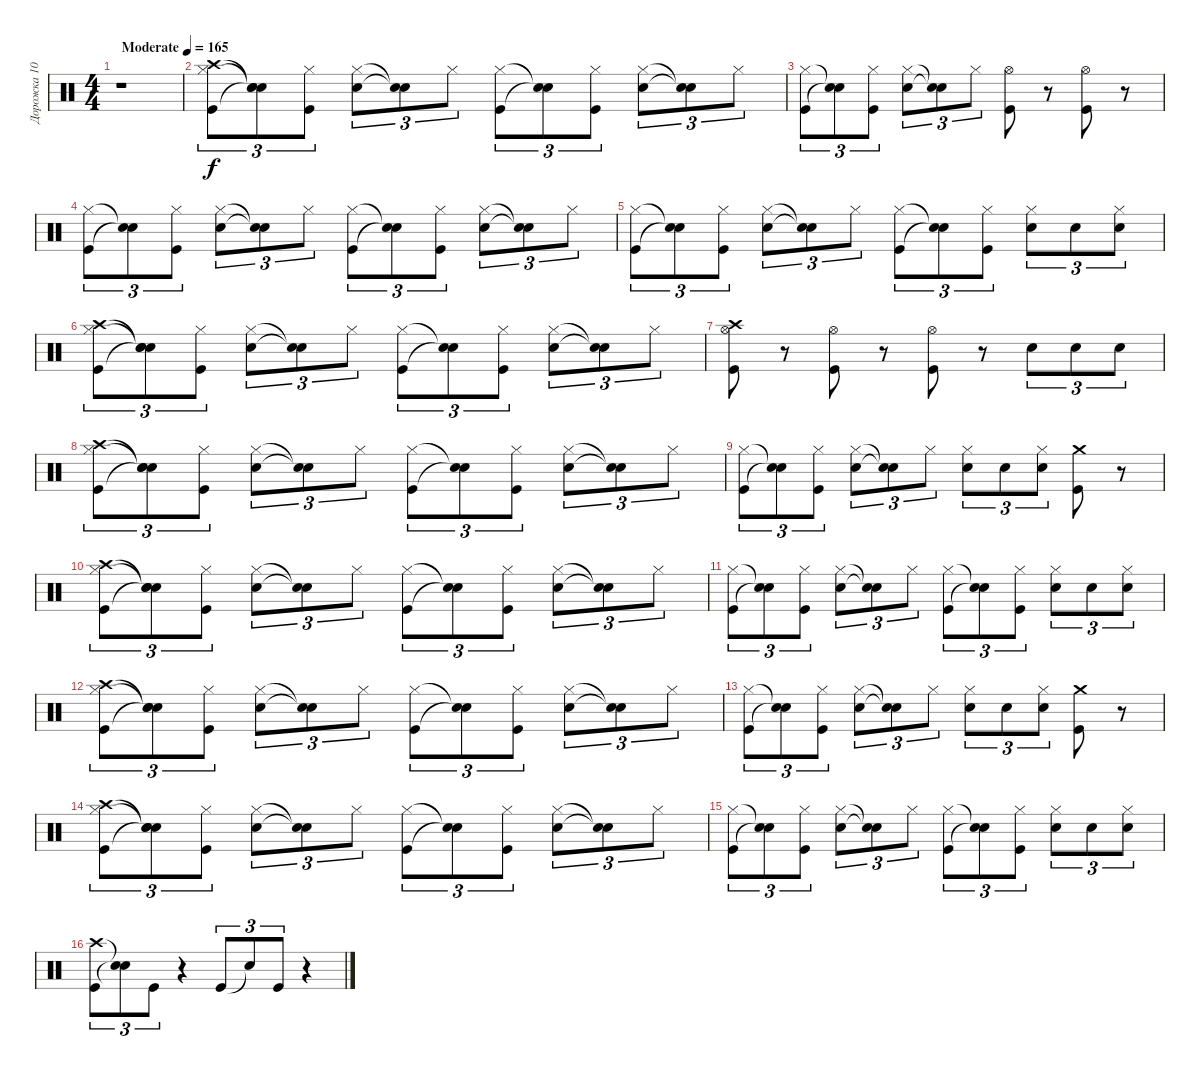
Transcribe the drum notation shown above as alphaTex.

\track ("Дорожка 10" "Дорожка 10") {instrument percussion}
\staff {score}
\articulation defaults
\ts (4 4)
\tempo (165 "Moderate")
\clef neutral
\ks c
r.1{dy f} |
("Crash high (hit)" "Hi-Hat (closed)" "Kick (hit)").8{tu (3 2)} ("Snare (hit)"{t} "Snare (hit)"{t} "Snare (hit)"{t}).8{tu (3 2)} ("Hi-Hat (closed)" "Kick (hit)").8{tu (3 2)} ("Electric Snare (hit)" "Hi-Hat (closed)").8{tu (3 2)} ("Snare (hit)"{t} "Snare (hit)"{t}).8{tu (3 2)} "Hi-Hat (closed)".8{tu (3 2)} ("Hi-Hat (closed)" "Kick (hit)").8{tu (3 2)} ("Snare (hit)"{t} "Snare (hit)"{t}).8{tu (3 2)} ("Hi-Hat (closed)" "Kick (hit)").8{tu (3 2)} ("Hi-Hat (closed)" "Electric Snare (hit)").8{tu (3 2)} ("Snare (hit)"{t} "Snare (hit)"{t}).8{tu (3 2)} "Hi-Hat (closed)".8{tu (3 2)} |
("Kick (hit)" "Hi-Hat (closed)").8{tu (3 2)} ("Snare (hit)"{t} "Snare (hit)"{t}).8{tu (3 2)} ("Kick (hit)" "Hi-Hat (closed)").8{tu (3 2)} ("Hi-Hat (closed)" "Electric Snare (hit)").8{tu (3 2)} ("Snare (hit)"{t} "Snare (hit)"{t}).8{tu (3 2)} "Hi-Hat (closed)".8{tu (3 2)} ("Kick (hit)" "Hi-Hat (open)").8 r.8 ("Kick (hit)" "Hi-Hat (open)").8 r.8 |
("Hi-Hat (closed)" "Kick (hit)").8{tu (3 2)} ("Snare (hit)"{t} "Snare (hit)"{t}).8{tu (3 2)} ("Hi-Hat (closed)" "Kick (hit)").8{tu (3 2)} ("Hi-Hat (closed)" "Electric Snare (hit)").8{tu (3 2)} ("Snare (hit)"{t} "Snare (hit)"{t}).8{tu (3 2)} "Hi-Hat (closed)".8{tu (3 2)} ("Kick (hit)" "Hi-Hat (closed)").8{tu (3 2)} ("Snare (hit)"{t} "Snare (hit)"{t}).8{tu (3 2)} ("Kick (hit)" "Hi-Hat (closed)").8{tu (3 2)} ("Hi-Hat (closed)" "Electric Snare (hit)").8{tu (3 2)} ("Snare (hit)"{t} "Snare (hit)"{t}).8{tu (3 2)} "Hi-Hat (closed)".8{tu (3 2)} |
("Kick (hit)" "Hi-Hat (closed)").8{tu (3 2)} ("Snare (hit)"{t} "Snare (hit)"{t}).8{tu (3 2)} ("Hi-Hat (closed)" "Kick (hit)").8{tu (3 2)} ("Electric Snare (hit)" "Hi-Hat (closed)").8{tu (3 2)} ("Snare (hit)"{t} "Snare (hit)"{t}).8{tu (3 2)} "Hi-Hat (closed)".8{tu (3 2)} ("Kick (hit)" "Hi-Hat (closed)").8{tu (3 2)} ("Snare (hit)"{t} "Snare (hit)"{t}).8{tu (3 2)} ("Hi-Hat (closed)" "Kick (hit)").8{tu (3 2)} ("Electric Snare (hit)" "Hi-Hat (closed)").8{tu (3 2)} "Electric Snare (hit)".8{tu (3 2)} ("Hi-Hat (closed)" "Electric Snare (hit)").8{tu (3 2)} |
("Crash high (hit)" "Kick (hit)" "Hi-Hat (closed)").8{tu (3 2)} ("Snare (hit)"{t} "Snare (hit)"{t} "Snare (hit)"{t}).8{tu (3 2)} ("Kick (hit)" "Hi-Hat (closed)").8{tu (3 2)} ("Electric Snare (hit)" "Hi-Hat (closed)").8{tu (3 2)} ("Snare (hit)"{t} "Snare (hit)"{t}).8{tu (3 2)} "Hi-Hat (closed)".8{tu (3 2)} ("Kick (hit)" "Hi-Hat (closed)").8{tu (3 2)} ("Snare (hit)"{t} "Snare (hit)"{t}).8{tu (3 2)} ("Hi-Hat (closed)" "Kick (hit)").8{tu (3 2)} ("Electric Snare (hit)" "Hi-Hat (closed)").8{tu (3 2)} ("Snare (hit)"{t} "Snare (hit)"{t}).8{tu (3 2)} "Hi-Hat (closed)".8{tu (3 2)} |
("Kick (hit)" "Crash high (hit)" "Hi-Hat (open)").8 r.8 ("Hi-Hat (open)" "Kick (hit)").8 r.8 ("Kick (hit)" "Hi-Hat (open)").8 r.8 "Electric Snare (hit)".8{tu (3 2)} "Electric Snare (hit)".8{tu (3 2)} "Electric Snare (hit)".8{tu (3 2)} |
("Hi-Hat (closed)" "Crash high (hit)" "Kick (hit)").8{tu (3 2)} ("Snare (hit)"{t} "Snare (hit)"{t} "Snare (hit)"{t}).8{tu (3 2)} ("Kick (hit)" "Hi-Hat (closed)").8{tu (3 2)} ("Hi-Hat (closed)" "Electric Snare (hit)").8{tu (3 2)} ("Snare (hit)"{t} "Snare (hit)"{t}).8{tu (3 2)} "Hi-Hat (closed)".8{tu (3 2)} ("Kick (hit)" "Hi-Hat (closed)").8{tu (3 2)} ("Snare (hit)"{t} "Snare (hit)"{t}).8{tu (3 2)} ("Kick (hit)" "Hi-Hat (closed)").8{tu (3 2)} ("Electric Snare (hit)" "Hi-Hat (closed)").8{tu (3 2)} ("Snare (hit)"{t} "Snare (hit)"{t}).8{tu (3 2)} "Hi-Hat (closed)".8{tu (3 2)} |
("Hi-Hat (closed)" "Kick (hit)").8{tu (3 2)} ("Snare (hit)"{t} "Snare (hit)"{t}).8{tu (3 2)} ("Kick (hit)" "Hi-Hat (closed)").8{tu (3 2)} ("Electric Snare (hit)" "Hi-Hat (closed)").8{tu (3 2)} ("Snare (hit)"{t} "Snare (hit)"{t}).8{tu (3 2)} "Hi-Hat (closed)".8{tu (3 2)} ("Electric Snare (hit)" "Hi-Hat (closed)").8{tu (3 2)} "Electric Snare (hit)".8{tu (3 2)} ("Electric Snare (hit)" "Hi-Hat (closed)").8{tu (3 2)} ("Kick (hit)" "Crash medium (hit)").8 r.8 |
("Kick (hit)" "Crash high (hit)" "Hi-Hat (closed)").8{tu (3 2)} ("Snare (hit)"{t} "Snare (hit)"{t} "Snare (hit)"{t}).8{tu (3 2)} ("Hi-Hat (closed)" "Kick (hit)").8{tu (3 2)} ("Hi-Hat (closed)" "Electric Snare (hit)").8{tu (3 2)} ("Snare (hit)"{t} "Snare (hit)"{t}).8{tu (3 2)} "Hi-Hat (closed)".8{tu (3 2)} ("Hi-Hat (closed)" "Kick (hit)").8{tu (3 2)} ("Snare (hit)"{t} "Snare (hit)"{t}).8{tu (3 2)} ("Kick (hit)" "Hi-Hat (closed)").8{tu (3 2)} ("Electric Snare (hit)" "Hi-Hat (closed)").8{tu (3 2)} ("Snare (hit)"{t} "Snare (hit)"{t}).8{tu (3 2)} "Hi-Hat (closed)".8{tu (3 2)} |
("Hi-Hat (closed)" "Kick (hit)").8{tu (3 2)} ("Snare (hit)"{t} "Snare (hit)"{t}).8{tu (3 2)} ("Hi-Hat (closed)" "Kick (hit)").8{tu (3 2)} ("Electric Snare (hit)" "Hi-Hat (closed)").8{tu (3 2)} ("Snare (hit)"{t} "Snare (hit)"{t}).8{tu (3 2)} "Hi-Hat (closed)".8{tu (3 2)} ("Hi-Hat (closed)" "Kick (hit)").8{tu (3 2)} ("Snare (hit)"{t} "Snare (hit)"{t}).8{tu (3 2)} ("Kick (hit)" "Hi-Hat (closed)").8{tu (3 2)} ("Hi-Hat (closed)" "Electric Snare (hit)").8{tu (3 2)} "Electric Snare (hit)".8{tu (3 2)} ("Hi-Hat (closed)" "Electric Snare (hit)").8{tu (3 2)} |
("Crash high (hit)" "Kick (hit)" "Hi-Hat (closed)").8{tu (3 2)} ("Snare (hit)"{t} "Snare (hit)"{t} "Snare (hit)"{t}).8{tu (3 2)} ("Hi-Hat (closed)" "Kick (hit)").8{tu (3 2)} ("Hi-Hat (closed)" "Electric Snare (hit)").8{tu (3 2)} ("Snare (hit)"{t} "Snare (hit)"{t}).8{tu (3 2)} "Hi-Hat (closed)".8{tu (3 2)} ("Kick (hit)" "Hi-Hat (closed)").8{tu (3 2)} ("Snare (hit)"{t} "Snare (hit)"{t}).8{tu (3 2)} ("Hi-Hat (closed)" "Kick (hit)").8{tu (3 2)} ("Hi-Hat (closed)" "Electric Snare (hit)").8{tu (3 2)} ("Snare (hit)"{t} "Snare (hit)"{t}).8{tu (3 2)} "Hi-Hat (closed)".8{tu (3 2)} |
("Hi-Hat (closed)" "Kick (hit)").8{tu (3 2)} ("Snare (hit)"{t} "Snare (hit)"{t}).8{tu (3 2)} ("Hi-Hat (closed)" "Kick (hit)").8{tu (3 2)} ("Electric Snare (hit)" "Hi-Hat (closed)").8{tu (3 2)} ("Snare (hit)"{t} "Snare (hit)"{t}).8{tu (3 2)} "Hi-Hat (closed)".8{tu (3 2)} ("Electric Snare (hit)" "Hi-Hat (closed)").8{tu (3 2)} "Electric Snare (hit)".8{tu (3 2)} ("Electric Snare (hit)" "Hi-Hat (closed)").8{tu (3 2)} ("Kick (hit)" "Crash medium (hit)").8 r.8 |
("Crash high (hit)" "Kick (hit)" "Hi-Hat (closed)").8{tu (3 2)} ("Snare (hit)"{t} "Snare (hit)"{t} "Snare (hit)"{t}).8{tu (3 2)} ("Hi-Hat (closed)" "Kick (hit)").8{tu (3 2)} ("Hi-Hat (closed)" "Electric Snare (hit)").8{tu (3 2)} ("Snare (hit)"{t} "Snare (hit)"{t}).8{tu (3 2)} "Hi-Hat (closed)".8{tu (3 2)} ("Kick (hit)" "Hi-Hat (closed)").8{tu (3 2)} ("Snare (hit)"{t} "Snare (hit)"{t}).8{tu (3 2)} ("Hi-Hat (closed)" "Kick (hit)").8{tu (3 2)} ("Electric Snare (hit)" "Hi-Hat (closed)").8{tu (3 2)} ("Snare (hit)"{t} "Snare (hit)"{t}).8{tu (3 2)} "Hi-Hat (closed)".8{tu (3 2)} |
("Kick (hit)" "Hi-Hat (closed)").8{tu (3 2)} ("Snare (hit)"{t} "Snare (hit)"{t}).8{tu (3 2)} ("Kick (hit)" "Hi-Hat (closed)").8{tu (3 2)} ("Electric Snare (hit)" "Hi-Hat (closed)").8{tu (3 2)} ("Snare (hit)"{t} "Snare (hit)"{t}).8{tu (3 2)} "Hi-Hat (closed)".8{tu (3 2)} ("Kick (hit)" "Hi-Hat (closed)").8{tu (3 2)} ("Snare (hit)"{t} "Snare (hit)"{t}).8{tu (3 2)} ("Kick (hit)" "Hi-Hat (closed)").8{tu (3 2)} ("Hi-Hat (closed)" "Electric Snare (hit)").8{tu (3 2)} "Electric Snare (hit)".8{tu (3 2)} ("Hi-Hat (closed)" "Electric Snare (hit)").8{tu (3 2)} |
("Kick (hit)" "Crash high (hit)").8{tu (3 2)} ("Snare (hit)"{t} "Snare (hit)"{t}).8{tu (3 2)} "Kick (hit)".8{tu (3 2)} r.4 "Kick (hit)".8{tu (3 2)} "Snare (hit)"{t}.8{tu (3 2)} "Kick (hit)".8{tu (3 2)} r.4
